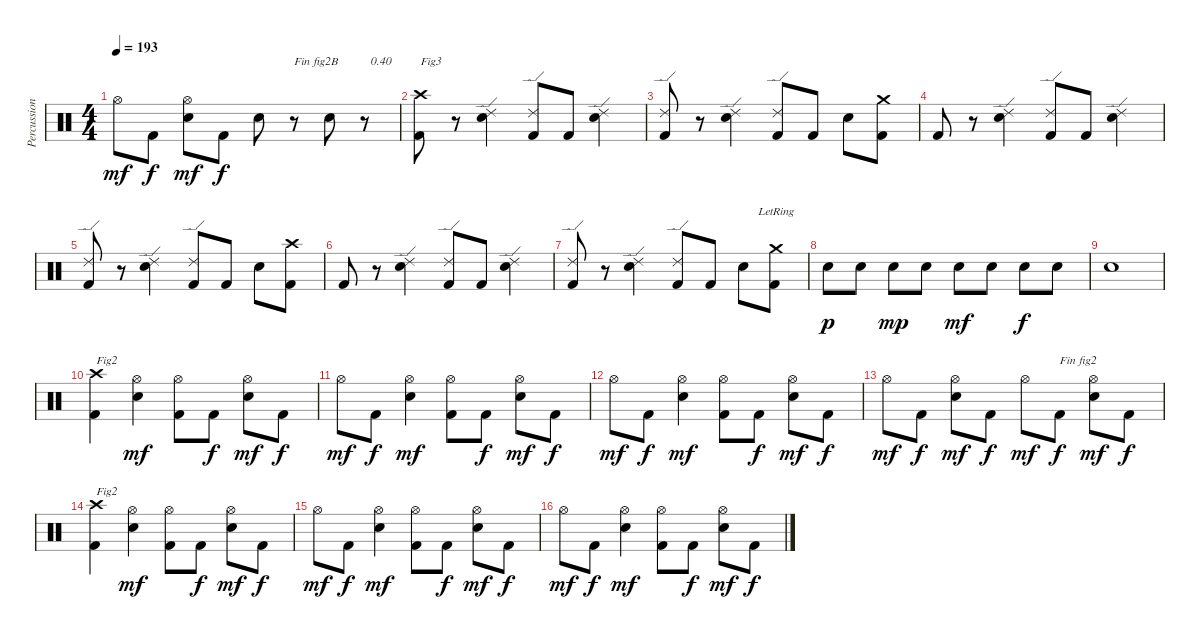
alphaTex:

\track ("Percussions" "Percussion") {instrument percussion}
\staff {score}
\articulation defaults
\ts (4 4)
\tempo 193
\clef neutral
\ks c "Hi-Hat (open)".8{dy mf} "Kick (hit) 2".8{dy f}
("Electric Snare (hit)" "Hi-Hat (open)").8{dy mf} "Kick (hit) 2".8{dy f} "Electric Snare (hit)".8 r.8{txt "Fin fig2B"} "Electric Snare (hit)".8 r.8{txt "  0.40"} |
("Kick (hit) 2" "Crash high (hit)").8{txt "Fig3"} r.8 ("Electric Snare (hit)" "Ride (edge) 2").4 ("Kick (hit) 2" "Ride (edge) 2").8 "Kick (hit) 2".8 ("Electric Snare (hit)" "Ride (edge) 2").4 |
("Kick (hit) 2" "Ride (edge) 2").8 r.8 ("Electric Snare (hit)" "Ride (edge) 2").4 ("Kick (hit) 2" "Ride (edge) 2").8 "Kick (hit) 2".8 "Electric Snare (hit)".8 ("Kick (hit) 2" "Crash medium (hit)").8 |
"Kick (hit) 2".8 r.8 ("Electric Snare (hit)" "Ride (edge) 2").4 ("Kick (hit) 2" "Ride (edge) 2").8 "Kick (hit) 2".8 ("Electric Snare (hit)" "Ride (edge) 2").4 |
("Kick (hit) 2" "Ride (edge) 2").8 r.8 ("Electric Snare (hit)" "Ride (edge) 2").4 ("Kick (hit) 2" "Ride (edge) 2").8 "Kick (hit) 2".8 "Electric Snare (hit)".8 ("Kick (hit) 2" "Crash high (hit)").8 |
"Kick (hit) 2".8 r.8 ("Electric Snare (hit)" "Ride (edge) 2").4 ("Kick (hit) 2" "Ride (edge) 2").8 "Kick (hit) 2".8 ("Electric Snare (hit)" "Ride (edge) 2").4 |
("Kick (hit) 2" "Ride (edge) 2").8 r.8 ("Electric Snare (hit)" "Ride (edge) 2").4 ("Kick (hit) 2" "Ride (edge) 2").8 "Kick (hit) 2".8 "Electric Snare (hit)".8 ("Kick (hit) 2" "Crash medium (hit)"{lr}).8 |
"Electric Snare (hit)".8{dy p} "Electric Snare (hit)".8 "Electric Snare (hit)".8{dy mp} "Electric Snare (hit)".8 "Electric Snare (hit)".8{dy mf} "Electric Snare (hit)".8 "Electric Snare (hit)".8{dy f} "Electric Snare (hit)".8 |
"Electric Snare (hit)".1 |
("Kick (hit) 2" "Crash high (hit)").4{txt "Fig2"} ("Electric Snare (hit)" "Hi-Hat (open)").4{dy mf} ("Kick (hit) 2" "Hi-Hat (open)").8 "Kick (hit) 2".8{dy f} ("Electric Snare (hit)" "Hi-Hat (open)").8{dy mf} "Kick (hit) 2".8{dy f} |
"Hi-Hat (open)".8{dy mf} "Kick (hit) 2".8{dy f} ("Electric Snare (hit)" "Hi-Hat (open)").4{dy mf} ("Kick (hit) 2" "Hi-Hat (open)").8 "Kick (hit) 2".8{dy f} ("Electric Snare (hit)" "Hi-Hat (open)").8{dy mf} "Kick (hit) 2".8{dy f} |
"Hi-Hat (open)".8{dy mf} "Kick (hit) 2".8{dy f} ("Electric Snare (hit)" "Hi-Hat (open)").4{dy mf} ("Kick (hit) 2" "Hi-Hat (open)").8 "Kick (hit) 2".8{dy f} ("Electric Snare (hit)" "Hi-Hat (open)").8{dy mf} "Kick (hit) 2".8{dy f} |
"Hi-Hat (open)".8{dy mf} "Kick (hit) 2".8{dy f} ("Electric Snare (hit)" "Hi-Hat (open)").8{dy mf} "Kick (hit) 2".8{dy f} "Hi-Hat (open)".8{dy mf} "Kick (hit) 2".8{txt "Fin fig2" dy f} ("Electric Snare (hit)" "Hi-Hat (open)").8{dy mf} "Kick (hit) 2".8{dy f} |
("Kick (hit) 2" "Crash high (hit)").4{txt "Fig2"} ("Electric Snare (hit)" "Hi-Hat (open)").4{dy mf} ("Kick (hit) 2" "Hi-Hat (open)").8 "Kick (hit) 2".8{dy f} ("Electric Snare (hit)" "Hi-Hat (open)").8{dy mf} "Kick (hit) 2".8{dy f} |
"Hi-Hat (open)".8{dy mf} "Kick (hit) 2".8{dy f} ("Electric Snare (hit)" "Hi-Hat (open)").4{dy mf} ("Kick (hit) 2" "Hi-Hat (open)").8 "Kick (hit) 2".8{dy f} ("Electric Snare (hit)" "Hi-Hat (open)").8{dy mf} "Kick (hit) 2".8{dy f} |
"Hi-Hat (open)".8{dy mf} "Kick (hit) 2".8{dy f} ("Electric Snare (hit)" "Hi-Hat (open)").4{dy mf} ("Kick (hit) 2" "Hi-Hat (open)").8 "Kick (hit) 2".8{dy f} ("Electric Snare (hit)" "Hi-Hat (open)").8{dy mf} "Kick (hit) 2".8{dy f}
